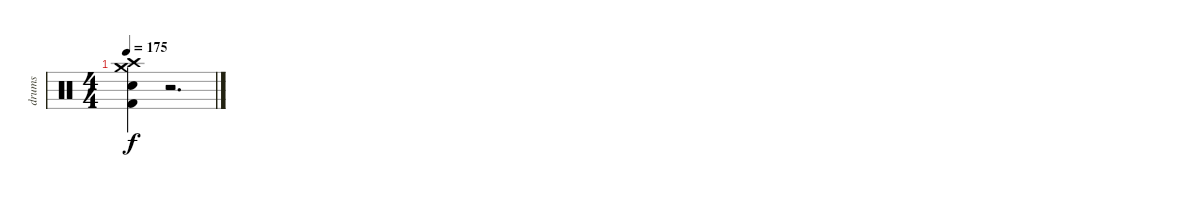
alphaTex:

\track ("drums" "drums") {instrument percussion}
\staff {score}
\articulation defaults
\ts (4 4)
\tempo 175
\clef neutral
\ks c
("Crash high (hit)" "Kick (hit) 2" "Electric Snare (hit)" "Crash medium (hit)").4{dy f} r.2{d}
